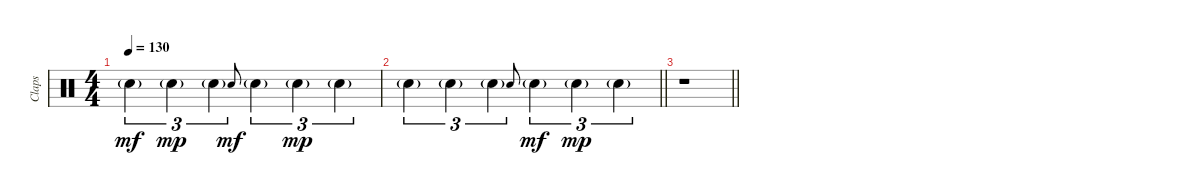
\track ("Claps" "Claps") {instrument percussion}
\staff {score}
\articulation defaults
\ts (4 4)
\tempo 130
\clef neutral
\ks c "Hand Clap (hit)"{g}.4{tu (3 2) dy mf} "Hand Clap (hit)"{g}.4{tu (3 2) dy mp} "Hand Clap (hit)"{g}.4{tu (3 2)} "Hand Clap (hit)".8{gr onbeat dy mf} "Hand Clap (hit)"{g}.4{tu (3 2)} "Hand Clap (hit)"{g}.4{tu (3 2) dy mp} "Hand Clap (hit)"{g}.4{tu (3 2)}
|
\barLineRight lightlight "Hand Clap (hit)"{g}.4{tu (3 2)} "Hand Clap (hit)"{g}.4{tu (3 2)} "Hand Clap (hit)"{g}.4{tu (3 2)} "Hand Clap (hit)".8{gr onbeat} "Hand Clap (hit)"{g}.4{tu (3 2) dy mf} "Hand Clap (hit)"{g}.4{tu (3 2) dy mp} "Hand Clap (hit)"{g}.4{tu (3 2)}
|
\barLineRight lightlight
r.1
